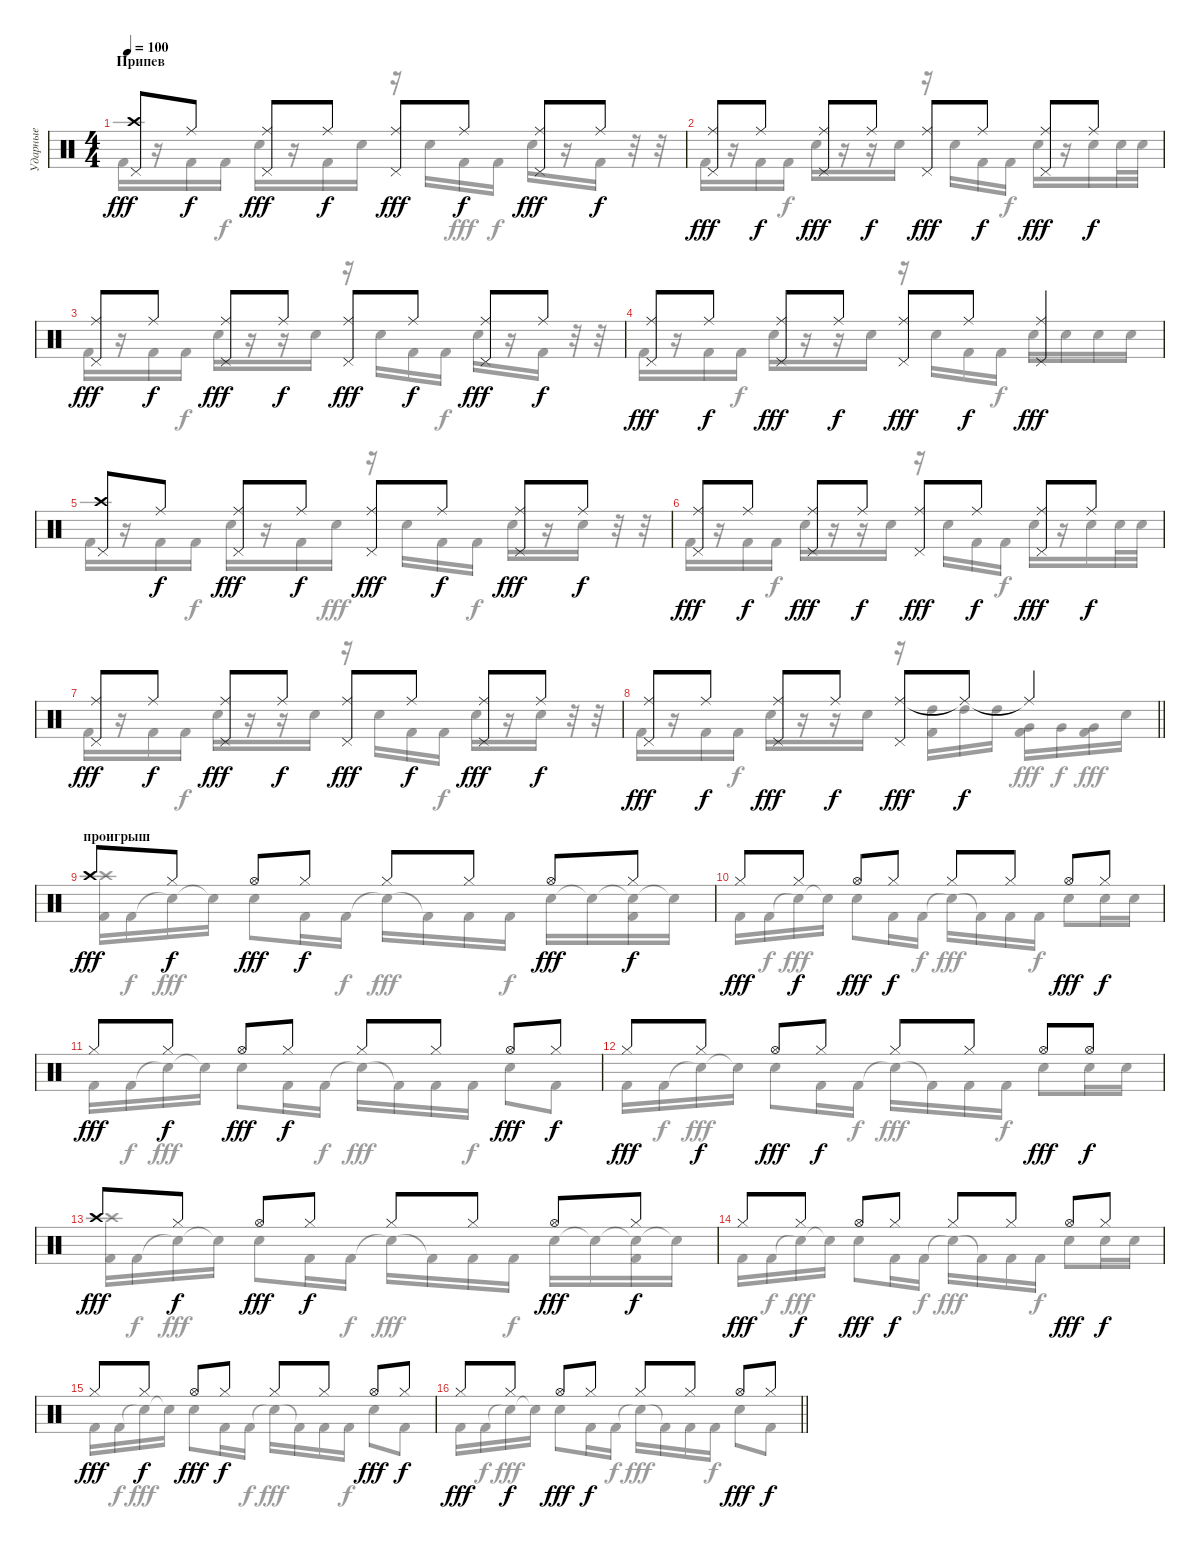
\track ("Ударные" "Ударные") {instrument percussion}
\staff {score}
\articulation defaults
\voice
\ts (4 4)
\section ("" "Припев")
\tempo 100
\clef neutral
\ks c
("Crash high (hit)" "Pedal Hi-Hat (hit)").8{dy fff} "Ride (middle)".8{dy f} ("Ride (middle)" "Pedal Hi-Hat (hit)").8{dy fff} "Ride (middle)".8{dy f} ("Ride (middle)" "Pedal Hi-Hat (hit)").8{dy fff} "Ride (middle)".8{dy f} ("Ride (middle)" "Pedal Hi-Hat (hit)").8{dy fff} "Ride (middle)".8{dy f} |
("Ride (middle)" "Pedal Hi-Hat (hit)").8{dy fff} "Ride (middle)".8{dy f} ("Ride (middle)" "Pedal Hi-Hat (hit)").8{dy fff} "Ride (middle)".8{dy f} ("Ride (middle)" "Pedal Hi-Hat (hit)").8{dy fff} "Ride (middle)".8{dy f} ("Ride (middle)" "Pedal Hi-Hat (hit)").8{dy fff} "Ride (middle)".8{dy f} |
("Ride (middle)" "Pedal Hi-Hat (hit)").8{dy fff} "Ride (middle)".8{dy f} ("Ride (middle)" "Pedal Hi-Hat (hit)").8{dy fff} "Ride (middle)".8{dy f} ("Ride (middle)" "Pedal Hi-Hat (hit)").8{dy fff} "Ride (middle)".8{dy f} ("Ride (middle)" "Pedal Hi-Hat (hit)").8{dy fff} "Ride (middle)".8{dy f} |
("Ride (middle)" "Pedal Hi-Hat (hit)").8{dy fff} "Ride (middle)".8{dy f} ("Ride (middle)" "Pedal Hi-Hat (hit)").8{dy fff} "Ride (middle)".8{dy f} ("Ride (middle)" "Pedal Hi-Hat (hit)").8{dy fff} "Ride (middle)".8{dy f} ("Ride (middle)" "Pedal Hi-Hat (hit)").4{dy fff} |
("Crash high (hit)" "Pedal Hi-Hat (hit)").8 "Ride (middle)".8{dy f} ("Ride (middle)" "Pedal Hi-Hat (hit)").8{dy fff} "Ride (middle)".8{dy f} ("Ride (middle)" "Pedal Hi-Hat (hit)").8{dy fff} "Ride (middle)".8{dy f} ("Ride (middle)" "Pedal Hi-Hat (hit)").8{dy fff} "Ride (middle)".8{dy f} |
("Ride (middle)" "Pedal Hi-Hat (hit)").8{dy fff} "Ride (middle)".8{dy f} ("Ride (middle)" "Pedal Hi-Hat (hit)").8{dy fff} "Ride (middle)".8{dy f} ("Ride (middle)" "Pedal Hi-Hat (hit)").8{dy fff} "Ride (middle)".8{dy f} ("Ride (middle)" "Pedal Hi-Hat (hit)").8{dy fff} "Ride (middle)".8{dy f} |
("Ride (middle)" "Pedal Hi-Hat (hit)").8{dy fff} "Ride (middle)".8{dy f} ("Ride (middle)" "Pedal Hi-Hat (hit)").8{dy fff} "Ride (middle)".8{dy f} ("Ride (middle)" "Pedal Hi-Hat (hit)").8{dy fff} "Ride (middle)".8{dy f} ("Ride (middle)" "Pedal Hi-Hat (hit)").8{dy fff} "Ride (middle)".8{dy f} |
\barLineRight lightlight
("Ride (middle)" "Pedal Hi-Hat (hit)").8{dy fff} "Ride (middle)".8{dy f} ("Ride (middle)" "Pedal Hi-Hat (hit)").8{dy fff} "Ride (middle)".8{dy f} ("Ride (middle)" "Pedal Hi-Hat (hit)").8{dy fff} "Ride (middle)"{t}.8{dy f} "Ride (middle)"{t}.4 |
\section ("" "проигрыш")
"Crash high (hit)".8{dy fff} "Hi-Hat (closed)".8{dy f} "Hi-Hat (open)".8{dy fff} "Hi-Hat (closed)".8{dy f} "Hi-Hat (closed)".8 "Hi-Hat (closed)".8 "Hi-Hat (open)".8{dy fff} "Hi-Hat (closed)".8{dy f} |
"Hi-Hat (closed)".8{dy fff} "Hi-Hat (closed)".8{dy f} "Hi-Hat (open)".8{dy fff} "Hi-Hat (closed)".8{dy f} "Hi-Hat (closed)".8 "Hi-Hat (closed)".8 "Hi-Hat (open)".8{dy fff} "Hi-Hat (closed)".8{dy f} |
"Hi-Hat (closed)".8{dy fff} "Hi-Hat (closed)".8{dy f} "Hi-Hat (open)".8{dy fff} "Hi-Hat (closed)".8{dy f} "Hi-Hat (closed)".8 "Hi-Hat (closed)".8 "Hi-Hat (open)".8{dy fff} "Hi-Hat (closed)".8{dy f} |
"Hi-Hat (closed)".8{dy fff} "Hi-Hat (closed)".8{dy f} "Hi-Hat (open)".8{dy fff} "Hi-Hat (closed)".8{dy f} "Hi-Hat (closed)".8 "Hi-Hat (closed)".8 "Hi-Hat (open)".8{dy fff} "Hi-Hat (open)".8{dy f} |
"Crash high (hit)".8{dy fff} "Hi-Hat (closed)".8{dy f} "Hi-Hat (open)".8{dy fff} "Hi-Hat (closed)".8{dy f} "Hi-Hat (closed)".8 "Hi-Hat (closed)".8 "Hi-Hat (open)".8{dy fff} "Hi-Hat (closed)".8{dy f} |
"Hi-Hat (closed)".8{dy fff} "Hi-Hat (closed)".8{dy f} "Hi-Hat (open)".8{dy fff} "Hi-Hat (closed)".8{dy f} "Hi-Hat (closed)".8 "Hi-Hat (closed)".8 "Hi-Hat (open)".8{dy fff} "Hi-Hat (closed)".8{dy f} |
"Hi-Hat (closed)".8{dy fff} "Hi-Hat (closed)".8{dy f} "Hi-Hat (open)".8{dy fff} "Hi-Hat (closed)".8{dy f} "Hi-Hat (closed)".8 "Hi-Hat (closed)".8 "Hi-Hat (open)".8{dy fff} "Hi-Hat (closed)".8{dy f} |
\barLineRight lightlight "Hi-Hat (closed)".8{dy fff} "Hi-Hat (closed)".8{dy f} "Hi-Hat (open)".8{dy fff} "Hi-Hat (closed)".8{dy f} "Hi-Hat (closed)".8 "Hi-Hat (closed)".8 "Hi-Hat (open)".8{dy fff} "Hi-Hat (closed)".8{dy f}
\voice
\clef neutral
\ottava regular
\simile none
\ks c "Kick (hit) 2".16{dy fff}
r.16 "Kick (hit) 2".16 "Kick (hit) 2".16{dy f} "Snare (hit) 2".16{dy fff} r.16 "Kick (hit) 2".16{dy f} "Snare (hit) 2".16 r.16 "Snare (hit) 2".16 "Kick (hit) 2".16{dy fff} "Kick (hit) 2".16{dy f} "Snare (hit) 2".16{dy fff} r.16 "Kick (hit) 2".16{dy f} r.32 r.32 |
"Kick (hit) 2".16{dy fff} r.16 "Kick (hit) 2".16 "Kick (hit) 2".16{dy f} "Snare (hit) 2".16{dy fff} r.16 r.16 "Snare (hit) 2".16 r.16 "Snare (hit) 2".16 "Kick (hit) 2".16 "Kick (hit) 2".16{dy f} "Snare (hit) 2".16{dy fff} r.16 "Snare (hit) 2".16 "Snare (hit) 2".32 "Snare (hit) 2".32 |
"Kick (hit) 2".16 r.16 "Kick (hit) 2".16 "Kick (hit) 2".16{dy f} "Snare (hit) 2".16{dy fff} r.16 r.16 "Snare (hit) 2".16 r.16 "Snare (hit) 2".16 "Kick (hit) 2".16 "Kick (hit) 2".16{dy f} "Snare (hit) 2".16{dy fff} r.16 "Kick (hit) 2".16{dy f} r.32 r.32 |
"Kick (hit) 2".16{dy fff} r.16 "Kick (hit) 2".16 "Kick (hit) 2".16{dy f} "Snare (hit) 2".16{dy fff} r.16 r.16 "Snare (hit) 2".16 r.16 "Snare (hit) 2".16 "Kick (hit) 2".16 "Kick (hit) 2".16{dy f} "Snare (hit) 2".16{dy fff} "Snare (hit) 2".16 "Snare (hit) 2".16 "Snare (hit) 2".16 |
"Kick (hit) 2".16 r.16 "Kick (hit) 2".16 "Kick (hit) 2".16{dy f} "Snare (hit) 2".16{dy fff} r.16 "Kick (hit) 2".16{dy f} "Snare (hit) 2".16{dy fff} r.16 "Snare (hit) 2".16 "Kick (hit) 2".16 "Kick (hit) 2".16{dy f} "Snare (hit) 2".16{dy fff} r.16 "Snare (hit) 2".16 r.32 r.32 |
"Kick (hit) 2".16 r.16 "Kick (hit) 2".16 "Kick (hit) 2".16{dy f} "Snare (hit) 2".16{dy fff} r.16 r.16 "Snare (hit) 2".16 r.16 "Snare (hit) 2".16 "Kick (hit) 2".16 "Kick (hit) 2".16{dy f} "Snare (hit) 2".16{dy fff} r.16 "Snare (hit) 2".16 "Snare (hit) 2".32 "Snare (hit) 2".32 |
"Kick (hit) 2".16 r.16 "Kick (hit) 2".16 "Kick (hit) 2".16{dy f} "Snare (hit) 2".16{dy fff} r.16 r.16 "Snare (hit) 2".16 r.16 "Snare (hit) 2".16 "Kick (hit) 2".16 "Kick (hit) 2".16{dy f} "Snare (hit) 2".16{dy fff} r.16 "Snare (hit) 2".16 r.32 r.32 |
\barLineRight lightlight "Kick (hit) 2".16
r.16 "Kick (hit) 2".16 "Kick (hit) 2".16{dy f} "Snare (hit) 2".16{dy fff} r.16 r.16 "Snare (hit) 2".16 r.16 ("High Tom (hit)" "Kick (hit) 2").16 "High Tom (hit)".16{dy f} "High Tom (hit)".16 ("Very Low Tom (hit)" "Kick (hit) 2").16{dy fff} "Very Low Tom (hit)".16{dy f} ("Very Low Tom (hit)" "Kick (hit) 2").16{dy fff} "Snare (hit) 2".16 |
("Crash high (hit)" "Kick (hit) 2").16 "Kick (hit) 2".16{dy f} "Snare (hit)"{t}.16{dy fff} "Snare (hit)"{t}.16 "Snare (hit) 2".8 "Kick (hit) 2".16 "Kick (hit) 2".16{dy f} "Snare (hit)"{t}.16{dy fff} "Kick (hit) 2"{t}.16 "Kick (hit) 2".16 "Kick (hit) 2".16{dy f} "Snare (hit) 2".16{dy fff} "Snare (hit) 2"{t}.16 ("Snare (hit) 2"{t} "Kick (hit) 2").16 "Snare (hit) 2"{t}.16 |
"Kick (hit) 2".16 "Kick (hit) 2".16{dy f} "Snare (hit)"{t}.16{dy fff} "Snare (hit)"{t}.16 "Snare (hit) 2".8 "Kick (hit) 2".16 "Kick (hit) 2".16{dy f} "Snare (hit)"{t}.16{dy fff} "Kick (hit) 2"{t}.16 "Kick (hit) 2".16 "Kick (hit) 2".16{dy f} "Snare (hit) 2".8{dy fff} "Snare (hit) 2".16 "Snare (hit) 2".16 |
"Kick (hit) 2".16 "Kick (hit) 2".16{dy f} "Snare (hit)"{t}.16{dy fff} "Snare (hit)"{t}.16 "Snare (hit) 2".8 "Kick (hit) 2".16 "Kick (hit) 2".16{dy f} "Snare (hit)"{t}.16{dy fff} "Kick (hit) 2"{t}.16 "Kick (hit) 2".16 "Kick (hit) 2".16{dy f} "Snare (hit) 2".8{dy fff} "Kick (hit) 2".8{dy f} |
"Kick (hit) 2".16{dy fff} "Kick (hit) 2".16{dy f} "Snare (hit)"{t}.16{dy fff} "Snare (hit)"{t}.16 "Snare (hit) 2".8 "Kick (hit) 2".16 "Kick (hit) 2".16{dy f} "Snare (hit)"{t}.16{dy fff} "Kick (hit) 2"{t}.16 "Kick (hit) 2".16 "Kick (hit) 2".16{dy f} "Snare (hit) 2".8{dy fff} "Snare (hit) 2".16 "Snare (hit) 2".16 |
("Crash high (hit)" "Kick (hit) 2").16 "Kick (hit) 2".16{dy f} "Snare (hit)"{t}.16{dy fff} "Snare (hit)"{t}.16 "Snare (hit) 2".8 "Kick (hit) 2".16 "Kick (hit) 2".16{dy f} "Snare (hit)"{t}.16{dy fff} "Kick (hit) 2"{t}.16 "Kick (hit) 2".16 "Kick (hit) 2".16{dy f} "Snare (hit) 2".16{dy fff} "Snare (hit) 2"{t}.16 ("Snare (hit) 2"{t} "Kick (hit) 2").16 "Snare (hit) 2"{t}.16 |
"Kick (hit) 2".16 "Kick (hit) 2".16{dy f} "Snare (hit)"{t}.16{dy fff} "Snare (hit)"{t}.16 "Snare (hit) 2".8 "Kick (hit) 2".16 "Kick (hit) 2".16{dy f} "Snare (hit)"{t}.16{dy fff} "Kick (hit) 2"{t}.16 "Kick (hit) 2".16 "Kick (hit) 2".16{dy f} "Snare (hit) 2".8{dy fff} "Snare (hit) 2".16 "Snare (hit) 2".16 |
"Kick (hit) 2".16 "Kick (hit) 2".16{dy f} "Snare (hit)"{t}.16{dy fff} "Snare (hit)"{t}.16 "Snare (hit) 2".8 "Kick (hit) 2".16 "Kick (hit) 2".16{dy f} "Snare (hit)"{t}.16{dy fff} "Kick (hit) 2"{t}.16 "Kick (hit) 2".16 "Kick (hit) 2".16{dy f} "Snare (hit) 2".8{dy fff} "Kick (hit) 2".8{dy f} |
\barLineRight lightlight "Kick (hit) 2".16{dy fff} "Kick (hit) 2".16{dy f} "Snare (hit)"{t}.16{dy fff} "Snare (hit)"{t}.16 "Snare (hit) 2".8 "Kick (hit) 2".16 "Kick (hit) 2".16{dy f} "Snare (hit)"{t}.16{dy fff} "Kick (hit) 2"{t}.16 "Kick (hit) 2".16 "Kick (hit) 2".16{dy f} "Snare (hit) 2".8{dy fff} "Kick (hit) 2".8{dy f}
